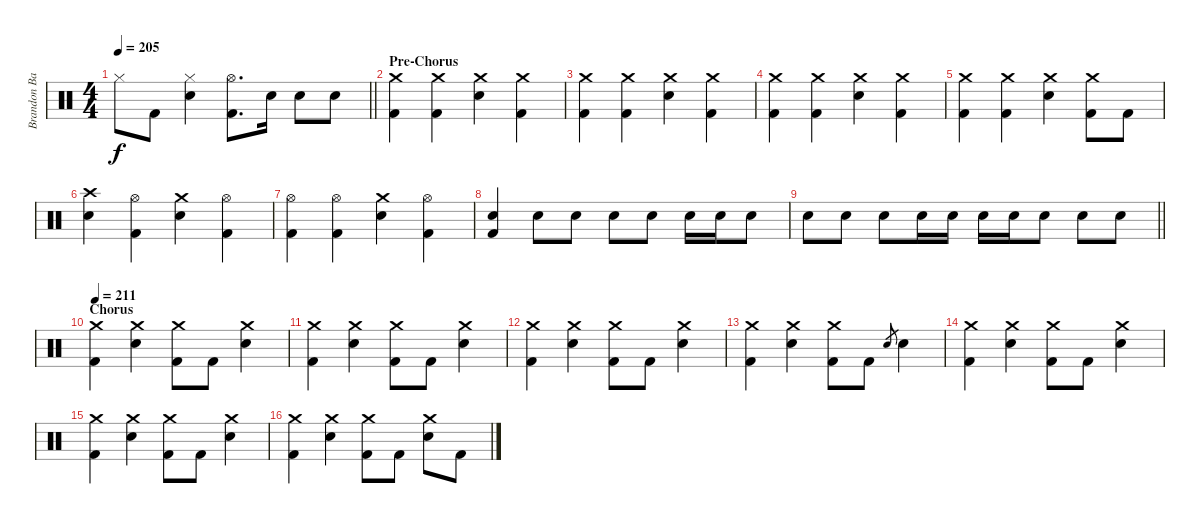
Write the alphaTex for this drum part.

\track ("Brandon Barnes - Drums" "Brandon Ba") {instrument percussion}
\staff {score}
\articulation defaults
\ts (4 4)
\tempo 205
\clef neutral
\barLineRight lightlight
\ks c "Hi-Hat (closed)".8{dy f} "Kick (hit) 2".8
("Hi-Hat (closed)" "Electric Snare (hit)").4 ("Hi-Hat (open)" "Kick (hit) 2").8{d} "Electric Snare (hit)".16 "Electric Snare (hit)".8 "Electric Snare (hit)".8 |
\section ("" "Pre-Chorus")
("Crash medium (hit)" "Kick (hit) 2").4 ("Crash medium (hit)" "Kick (hit) 2").4 ("Crash medium (hit)" "Electric Snare (hit)").4 ("Crash medium (hit)" "Kick (hit) 2").4 |
("Crash medium (hit)" "Kick (hit) 2").4 ("Crash medium (hit)" "Kick (hit) 2").4 ("Crash medium (hit)" "Electric Snare (hit)").4 ("Crash medium (hit)" "Kick (hit) 2").4 |
("Crash medium (hit)" "Kick (hit) 2").4 ("Crash medium (hit)" "Kick (hit) 2").4 ("Crash medium (hit)" "Electric Snare (hit)").4 ("Crash medium (hit)" "Kick (hit) 2").4 |
("Crash medium (hit)" "Kick (hit) 2").4 ("Crash medium (hit)" "Kick (hit) 2").4 ("Crash medium (hit)" "Electric Snare (hit)").4 ("Crash medium (hit)" "Kick (hit) 2").8 "Kick (hit) 2".8 |
("Crash high (hit)" "Electric Snare (hit)").4 ("Hi-Hat (open)" "Kick (hit) 2").4 ("Crash medium (hit)" "Electric Snare (hit)").4 ("Hi-Hat (open)" "Kick (hit) 2").4 |
("Hi-Hat (open)" "Kick (hit) 2").4 ("Hi-Hat (open)" "Kick (hit) 2").4 ("Crash medium (hit)" "Electric Snare (hit)").4 ("Hi-Hat (open)" "Kick (hit) 2").4 |
("Electric Snare (hit)" "Kick (hit) 2").4 "Electric Snare (hit)".8{volume 8} "Electric Snare (hit)".8{volume 9} "Electric Snare (hit)".8 "Electric Snare (hit)".8{volume 10} "Electric Snare (hit)".16{volume 8} "Electric Snare (hit)".16 "Electric Snare (hit)".8{volume 9} |
\barLineRight lightlight "Electric Snare (hit)".8{volume 10} "Electric Snare (hit)".8 "Electric Snare (hit)".8{volume 11} "Electric Snare (hit)".16{volume 9} "Electric Snare (hit)".16 "Electric Snare (hit)".16{volume 12} "Electric Snare (hit)".16 "Electric Snare (hit)".8 "Electric Snare (hit)".8 "Electric Snare (hit)".8
|
\section ("" "Chorus")
\tempo 211
("Crash medium (hit)" "Kick (hit) 2").4 ("Crash medium (hit)" "Electric Snare (hit)").4 ("Crash medium (hit)" "Kick (hit) 2").8 "Kick (hit) 2".8 ("Crash medium (hit)" "Electric Snare (hit)").4 |
("Crash medium (hit)" "Kick (hit) 2").4 ("Crash medium (hit)" "Electric Snare (hit)").4 ("Crash medium (hit)" "Kick (hit) 2").8 "Kick (hit) 2".8 ("Crash medium (hit)" "Electric Snare (hit)").4 |
("Crash medium (hit)" "Kick (hit) 2").4 ("Crash medium (hit)" "Electric Snare (hit)").4 ("Crash medium (hit)" "Kick (hit) 2").8 "Kick (hit) 2".8 ("Crash medium (hit)" "Electric Snare (hit)").4 |
("Crash medium (hit)" "Kick (hit) 2").4 ("Crash medium (hit)" "Electric Snare (hit)").4 ("Crash medium (hit)" "Kick (hit) 2").8 "Kick (hit) 2".8 "Electric Snare (hit)".8{gr} "Electric Snare (hit)".4 |
("Crash medium (hit)" "Kick (hit) 2").4 ("Crash medium (hit)" "Electric Snare (hit)").4 ("Crash medium (hit)" "Kick (hit) 2").8 "Kick (hit) 2".8 ("Crash medium (hit)" "Electric Snare (hit)").4 |
("Crash medium (hit)" "Kick (hit) 2").4 ("Crash medium (hit)" "Electric Snare (hit)").4 ("Crash medium (hit)" "Kick (hit) 2").8 "Kick (hit) 2".8 ("Crash medium (hit)" "Electric Snare (hit)").4 |
("Crash medium (hit)" "Kick (hit) 2").4 ("Crash medium (hit)" "Electric Snare (hit)").4 ("Crash medium (hit)" "Kick (hit) 2").8 "Kick (hit) 2".8 ("Crash medium (hit)" "Electric Snare (hit)").8 "Kick (hit) 2".8
